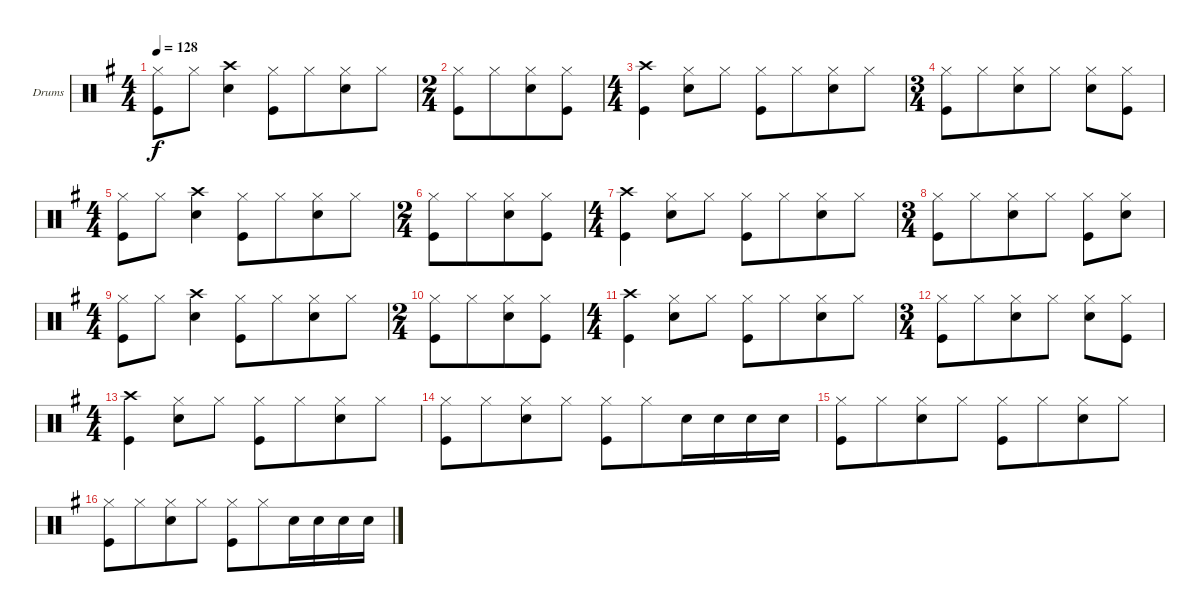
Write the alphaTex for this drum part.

\bracketExtendMode groupsimilarinstruments
\firstSystemTrackNameOrientation horizontal
\otherSystemsTrackNameOrientation horizontal
\track ("Drumkit" "Drums") {instrument percussion}
\staff {score}
\articulation defaults
\ts (4 4)
\beaming (8 4 4 6)
\tempo 128
\clef neutral
\scale
1.07314
\ks g
("Hi-Hat (closed)" "Kick (hit)").8{dy f} "Hi-Hat (closed)".8 ("Snare (hit) 2" "Crash high (hit)").4 ("Hi-Hat (closed)" "Kick (hit)").8 "Hi-Hat (closed)".8 ("Snare (hit) 2" "Hi-Hat (closed)").8 "Hi-Hat (closed)".8 |
\ts (2 4)
\beaming (8 4 4 6)
\scale
0.92686 ("Kick (hit)" "Hi-Hat (closed)").8 "Hi-Hat (closed)".8 ("Snare (hit) 2" "Hi-Hat (closed)").8 ("Kick (hit)" "Hi-Hat (closed)").8 |
\ts (4 4)
\beaming (8 4 4 6)
\scale
1.07314 ("Crash high (hit)" "Kick (hit)").4 ("Snare (hit) 2" "Hi-Hat (closed)").8 "Hi-Hat (closed)".8 ("Hi-Hat (closed)" "Kick (hit)").8 "Hi-Hat (closed)".8 ("Snare (hit) 2" "Hi-Hat (closed)").8 "Hi-Hat (closed)".8 |
\ts (3 4)
\beaming (8 4 4 6)
\scale
0.92686 ("Kick (hit)" "Hi-Hat (closed)").8 "Hi-Hat (closed)".8 ("Snare (hit) 2" "Hi-Hat (closed)").8 "Hi-Hat (closed)".8 ("Hi-Hat (closed)" "Snare (hit) 2").8 ("Kick (hit)" "Hi-Hat (closed)").8 |
\ts (4 4)
\beaming (8 4 4 6)
\scale
1.07314 ("Hi-Hat (closed)" "Kick (hit)").8 "Hi-Hat (closed)".8 ("Snare (hit) 2" "Crash high (hit)").4 ("Hi-Hat (closed)" "Kick (hit)").8 "Hi-Hat (closed)".8 ("Snare (hit) 2" "Hi-Hat (closed)").8 "Hi-Hat (closed)".8 |
\ts (2 4)
\beaming (8 4 4 6)
\scale
0.92686 ("Kick (hit)" "Hi-Hat (closed)").8 "Hi-Hat (closed)".8 ("Snare (hit) 2" "Hi-Hat (closed)").8 ("Kick (hit)" "Hi-Hat (closed)").8 |
\ts (4 4)
\beaming (8 4 4 6)
\scale
1.07314 ("Crash high (hit)" "Kick (hit)").4 ("Snare (hit) 2" "Hi-Hat (closed)").8 "Hi-Hat (closed)".8 ("Hi-Hat (closed)" "Kick (hit)").8 "Hi-Hat (closed)".8 ("Snare (hit) 2" "Hi-Hat (closed)").8 "Hi-Hat (closed)".8 |
\ts (3 4)
\beaming (8 4 4 6)
\scale
0.92686 ("Kick (hit)" "Hi-Hat (closed)").8 "Hi-Hat (closed)".8 ("Snare (hit) 2" "Hi-Hat (closed)").8 "Hi-Hat (closed)".8 ("Kick (hit)" "Hi-Hat (closed)").8 ("Snare (hit) 2" "Hi-Hat (closed)").8 |
\ts (4 4)
\beaming (8 4 4 6)
\scale
1.07314 ("Hi-Hat (closed)" "Kick (hit)").8 "Hi-Hat (closed)".8 ("Snare (hit) 2" "Crash high (hit)").4 ("Hi-Hat (closed)" "Kick (hit)").8 "Hi-Hat (closed)".8 ("Snare (hit) 2" "Hi-Hat (closed)").8 "Hi-Hat (closed)".8 |
\ts (2 4)
\beaming (8 4 4 6)
\scale
0.92686 ("Kick (hit)" "Hi-Hat (closed)").8 "Hi-Hat (closed)".8 ("Snare (hit) 2" "Hi-Hat (closed)").8 ("Kick (hit)" "Hi-Hat (closed)").8 |
\ts (4 4)
\beaming (8 4 4 6)
\scale
1.07314 ("Crash high (hit)" "Kick (hit)").4 ("Snare (hit) 2" "Hi-Hat (closed)").8 "Hi-Hat (closed)".8 ("Hi-Hat (closed)" "Kick (hit)").8 "Hi-Hat (closed)".8 ("Snare (hit) 2" "Hi-Hat (closed)").8 "Hi-Hat (closed)".8 |
\ts (3 4)
\beaming (8 4 4 6)
\scale
0.92686 ("Kick (hit)" "Hi-Hat (closed)").8 "Hi-Hat (closed)".8 ("Snare (hit) 2" "Hi-Hat (closed)").8 "Hi-Hat (closed)".8 ("Hi-Hat (closed)" "Snare (hit) 2").8 ("Kick (hit)" "Hi-Hat (closed)").8 |
\ts (4 4)
\beaming (8 4 4 6)
\scale
1.07314 ("Kick (hit)" "Crash high (hit)").4 ("Hi-Hat (closed)" "Snare (hit) 2").8 "Hi-Hat (closed)".8 ("Hi-Hat (closed)" "Kick (hit)").8 "Hi-Hat (closed)".8 ("Snare (hit) 2" "Hi-Hat (closed)").8 "Hi-Hat (closed)".8 |
\scale
0.92686 ("Hi-Hat (closed)" "Kick (hit)").8 "Hi-Hat (closed)".8 ("Snare (hit) 2" "Hi-Hat (closed)").8 "Hi-Hat (closed)".8 ("Hi-Hat (closed)" "Kick (hit)").8 "Hi-Hat (closed)".8 "Snare (hit) 2".16 "Snare (hit) 2".16 "Snare (hit) 2".16 "Snare (hit) 2".16 |
\scale
1.04288 ("Hi-Hat (closed)" "Kick (hit)").8 "Hi-Hat (closed)".8 ("Snare (hit) 2" "Hi-Hat (closed)").8 "Hi-Hat (closed)".8 ("Hi-Hat (closed)" "Kick (hit)").8 "Hi-Hat (closed)".8 ("Snare (hit) 2" "Hi-Hat (closed)").8 "Hi-Hat (closed)".8 |
\scale
0.957125 ("Hi-Hat (closed)" "Kick (hit)").8 "Hi-Hat (closed)".8 ("Snare (hit) 2" "Hi-Hat (closed)").8 "Hi-Hat (closed)".8 ("Hi-Hat (closed)" "Kick (hit)").8 "Hi-Hat (closed)".8 "Snare (hit) 2".16 "Snare (hit) 2".16 "Snare (hit) 2".16 "Snare (hit) 2".16
